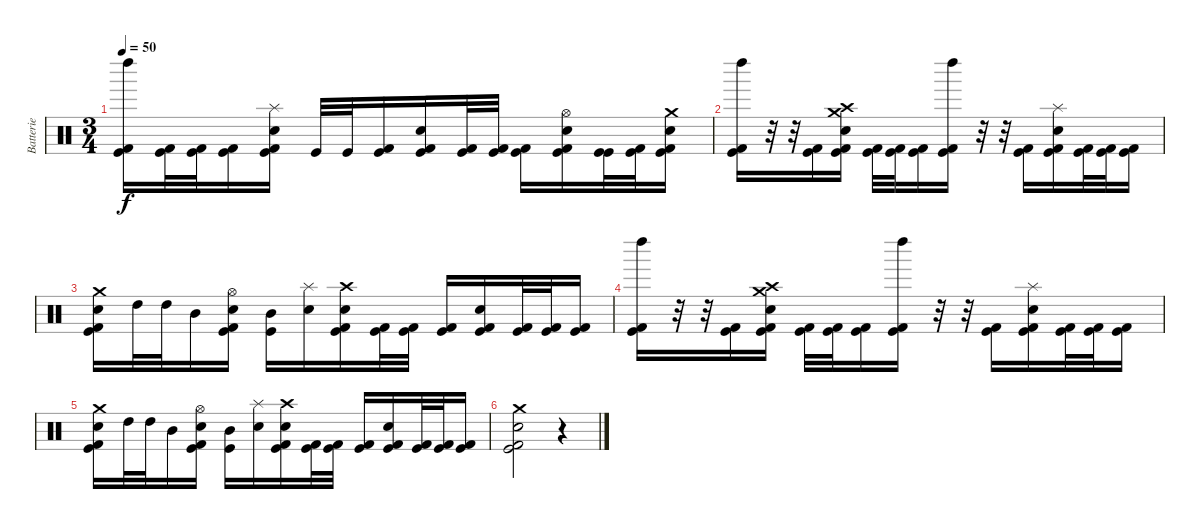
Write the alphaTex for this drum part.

\track ("Batterie" "Batterie") {instrument percussion}
\staff {score}
\articulation defaults
\ts (3 4)
\tempo 50
\clef neutral
\ks c
("Kick (hit)" "Kick (hit) 2" "Left Maraca (hit)").16{dy f} ("Kick (hit)" "Kick (hit) 2").32 ("Kick (hit)" "Kick (hit) 2").32 ("Kick (hit)" "Kick (hit) 2").16 ("Kick (hit)" "Kick (hit) 2" "Electric Snare (hit)" "Splash (hit)").16 "Kick (hit)".32 "Kick (hit)".32 ("Kick (hit)" "Kick (hit) 2").16 ("Kick (hit)" "Kick (hit) 2" "Electric Snare (hit)").16 ("Kick (hit)" "Kick (hit) 2").32 ("Kick (hit)" "Kick (hit) 2").32 ("Kick (hit)" "Kick (hit) 2").16 ("Kick (hit)" "Kick (hit) 2" "Electric Snare (hit)" "Hi-Hat (open)").16 ("Kick (hit)" "Kick (hit)").32 ("Kick (hit)" "Kick (hit) 2").32 ("Kick (hit)" "Kick (hit) 2" "Electric Snare (hit)" "Crash medium (hit)").16 |
("Kick (hit)" "Kick (hit) 2" "Left Maraca (hit)").16 r.32 r.32 ("Kick (hit)" "Kick (hit) 2").16 ("Kick (hit)" "Kick (hit) 2" "Electric Snare (hit)" "Crash high (hit)" "Crash medium (hit)").16 ("Kick (hit)" "Kick (hit) 2").32 ("Kick (hit)" "Kick (hit) 2").32 ("Kick (hit)" "Kick (hit) 2").16 ("Kick (hit)" "Kick (hit) 2" "Left Maraca (hit)").16 r.32 r.32 ("Kick (hit)" "Kick (hit) 2").16 ("Kick (hit)" "Kick (hit) 2" "Electric Snare (hit)" "Splash (hit)").16 ("Kick (hit)" "Kick (hit) 2").32 ("Kick (hit)" "Kick (hit) 2").32 ("Kick (hit)" "Kick (hit) 2").16 |
("Kick (hit)" "Kick (hit) 2" "Electric Snare (hit)" "Crash medium (hit)").16 "High Tom (hit)".32 "High Tom (hit)".32 "Mid Tom (hit)".16 ("Kick (hit)" "Kick (hit) 2" "Electric Snare (hit)" "Hi-Hat (open)").16 ("Kick (hit)" "Mid Tom (hit)").16 ("Electric Snare (hit)" "Splash (hit)").16 ("Kick (hit)" "Kick (hit) 2" "Electric Snare (hit)" "Crash high (hit)").16 ("Kick (hit)" "Kick (hit) 2").32 ("Kick (hit)" "Kick (hit) 2").32 ("Kick (hit)" "Kick (hit) 2").16 ("Kick (hit)" "Kick (hit) 2" "Electric Snare (hit)").16 ("Kick (hit)" "Kick (hit) 2").32 ("Kick (hit)" "Kick (hit) 2").32 ("Kick (hit)" "Kick (hit) 2").16 |
("Kick (hit)" "Kick (hit) 2" "Left Maraca (hit)").16 r.32 r.32 ("Kick (hit)" "Kick (hit) 2").16 ("Kick (hit)" "Kick (hit) 2" "Electric Snare (hit)" "Crash high (hit)" "Crash medium (hit)").16 ("Kick (hit)" "Kick (hit) 2").32 ("Kick (hit)" "Kick (hit) 2").32 ("Kick (hit)" "Kick (hit) 2").16 ("Kick (hit)" "Kick (hit) 2" "Left Maraca (hit)").16 r.32 r.32 ("Kick (hit)" "Kick (hit) 2").16 ("Kick (hit)" "Kick (hit) 2" "Electric Snare (hit)" "Splash (hit)").16 ("Kick (hit)" "Kick (hit) 2").32 ("Kick (hit)" "Kick (hit) 2").32 ("Kick (hit)" "Kick (hit) 2").16 |
("Kick (hit)" "Kick (hit) 2" "Electric Snare (hit)" "Crash medium (hit)").16 "High Tom (hit)".32 "High Tom (hit)".32 "Mid Tom (hit)".16 ("Kick (hit)" "Kick (hit) 2" "Electric Snare (hit)" "Hi-Hat (open)").16 ("Kick (hit)" "Mid Tom (hit)").16 ("Electric Snare (hit)" "Splash (hit)").16 ("Kick (hit)" "Kick (hit) 2" "Electric Snare (hit)" "Crash high (hit)").16 ("Kick (hit)" "Kick (hit) 2").32 ("Kick (hit)" "Kick (hit) 2").32 ("Kick (hit)" "Kick (hit) 2").16 ("Kick (hit)" "Kick (hit) 2" "Electric Snare (hit)").16 ("Kick (hit)" "Kick (hit) 2").32 ("Kick (hit)" "Kick (hit) 2").32 ("Kick (hit)" "Kick (hit) 2").16 |
("Kick (hit)" "Kick (hit) 2" "Electric Snare (hit)" "Crash medium (hit)").2 r.4
